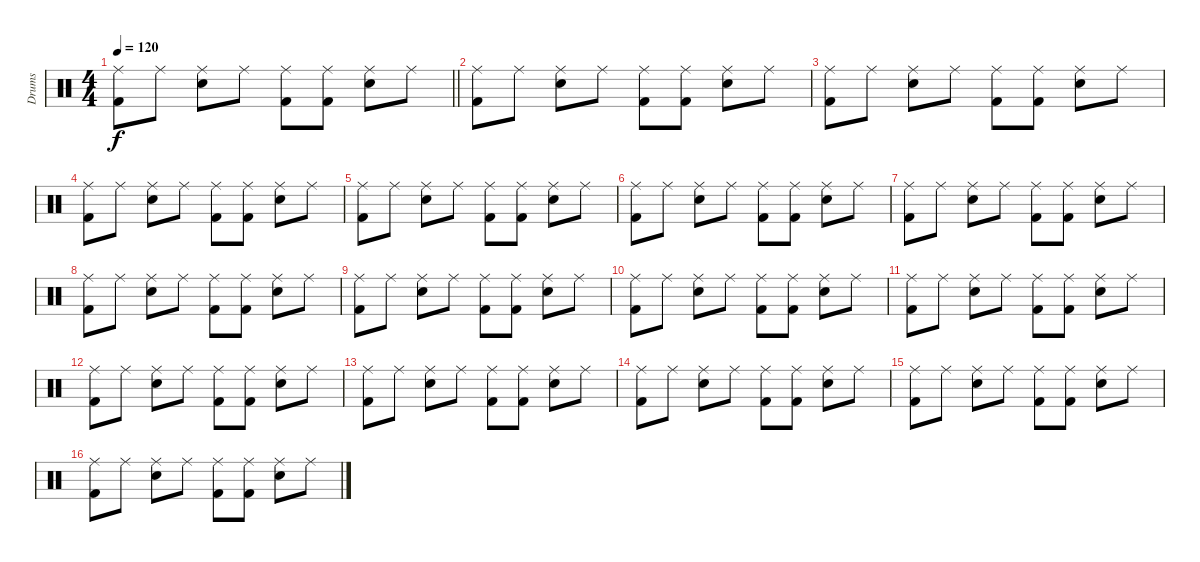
\track ("Drums" "Drums") {instrument percussion}
\staff {score}
\articulation defaults
\ts (4 4)
\tempo 120
\clef neutral
\barLineRight lightlight
\ks c
("Ride (middle)" "Kick (hit) 2").8{dy f} "Ride (middle)".8 ("Ride (middle)" "Snare (hit) 2").8 "Ride (middle)".8 ("Ride (middle)" "Kick (hit) 2").8 ("Ride (middle)" "Kick (hit) 2").8 ("Ride (middle)" "Snare (hit) 2").8 "Ride (middle)".8 |
("Ride (middle)" "Kick (hit) 2").8 "Ride (middle)".8 ("Ride (middle)" "Snare (hit) 2").8 "Ride (middle)".8 ("Ride (middle)" "Kick (hit) 2").8 ("Ride (middle)" "Kick (hit) 2").8 ("Ride (middle)" "Snare (hit) 2").8 "Ride (middle)".8 |
("Ride (middle)" "Kick (hit) 2").8 "Ride (middle)".8 ("Ride (middle)" "Snare (hit) 2").8 "Ride (middle)".8 ("Ride (middle)" "Kick (hit) 2").8 ("Ride (middle)" "Kick (hit) 2").8 ("Ride (middle)" "Snare (hit) 2").8 "Ride (middle)".8 |
("Ride (middle)" "Kick (hit) 2").8 "Ride (middle)".8 ("Ride (middle)" "Snare (hit) 2").8 "Ride (middle)".8 ("Ride (middle)" "Kick (hit) 2").8 ("Ride (middle)" "Kick (hit) 2").8 ("Ride (middle)" "Snare (hit) 2").8 "Ride (middle)".8 |
("Ride (middle)" "Kick (hit) 2").8 "Ride (middle)".8 ("Ride (middle)" "Snare (hit) 2").8 "Ride (middle)".8 ("Ride (middle)" "Kick (hit) 2").8 ("Ride (middle)" "Kick (hit) 2").8 ("Ride (middle)" "Snare (hit) 2").8 "Ride (middle)".8 |
("Ride (middle)" "Kick (hit) 2").8 "Ride (middle)".8 ("Ride (middle)" "Snare (hit) 2").8 "Ride (middle)".8 ("Ride (middle)" "Kick (hit) 2").8 ("Ride (middle)" "Kick (hit) 2").8 ("Ride (middle)" "Snare (hit) 2").8 "Ride (middle)".8 |
("Ride (middle)" "Kick (hit) 2").8 "Ride (middle)".8 ("Ride (middle)" "Snare (hit) 2").8 "Ride (middle)".8 ("Ride (middle)" "Kick (hit) 2").8 ("Ride (middle)" "Kick (hit) 2").8 ("Ride (middle)" "Snare (hit) 2").8 "Ride (middle)".8 |
("Ride (middle)" "Kick (hit) 2").8 "Ride (middle)".8 ("Ride (middle)" "Snare (hit) 2").8 "Ride (middle)".8 ("Ride (middle)" "Kick (hit) 2").8 ("Ride (middle)" "Kick (hit) 2").8 ("Ride (middle)" "Snare (hit) 2").8 "Ride (middle)".8 |
("Ride (middle)" "Kick (hit) 2").8 "Ride (middle)".8 ("Ride (middle)" "Snare (hit) 2").8 "Ride (middle)".8 ("Ride (middle)" "Kick (hit) 2").8 ("Ride (middle)" "Kick (hit) 2").8 ("Ride (middle)" "Snare (hit) 2").8 "Ride (middle)".8 |
("Ride (middle)" "Kick (hit) 2").8 "Ride (middle)".8 ("Ride (middle)" "Snare (hit) 2").8 "Ride (middle)".8 ("Ride (middle)" "Kick (hit) 2").8 ("Ride (middle)" "Kick (hit) 2").8 ("Ride (middle)" "Snare (hit) 2").8 "Ride (middle)".8 |
("Ride (middle)" "Kick (hit) 2").8 "Ride (middle)".8 ("Ride (middle)" "Snare (hit) 2").8 "Ride (middle)".8 ("Ride (middle)" "Kick (hit) 2").8 ("Ride (middle)" "Kick (hit) 2").8 ("Ride (middle)" "Snare (hit) 2").8 "Ride (middle)".8 |
("Ride (middle)" "Kick (hit) 2").8 "Ride (middle)".8 ("Ride (middle)" "Snare (hit) 2").8 "Ride (middle)".8 ("Ride (middle)" "Kick (hit) 2").8 ("Ride (middle)" "Kick (hit) 2").8 ("Ride (middle)" "Snare (hit) 2").8 "Ride (middle)".8 |
("Ride (middle)" "Kick (hit) 2").8 "Ride (middle)".8 ("Ride (middle)" "Snare (hit) 2").8 "Ride (middle)".8 ("Ride (middle)" "Kick (hit) 2").8 ("Ride (middle)" "Kick (hit) 2").8 ("Ride (middle)" "Snare (hit) 2").8 "Ride (middle)".8 |
("Ride (middle)" "Kick (hit) 2").8 "Ride (middle)".8 ("Ride (middle)" "Snare (hit) 2").8 "Ride (middle)".8 ("Ride (middle)" "Kick (hit) 2").8 ("Ride (middle)" "Kick (hit) 2").8 ("Ride (middle)" "Snare (hit) 2").8 "Ride (middle)".8 |
("Ride (middle)" "Kick (hit) 2").8 "Ride (middle)".8 ("Ride (middle)" "Snare (hit) 2").8 "Ride (middle)".8 ("Ride (middle)" "Kick (hit) 2").8 ("Ride (middle)" "Kick (hit) 2").8 ("Ride (middle)" "Snare (hit) 2").8 "Ride (middle)".8 |
("Ride (middle)" "Kick (hit) 2").8 "Ride (middle)".8 ("Ride (middle)" "Snare (hit) 2").8 "Ride (middle)".8 ("Ride (middle)" "Kick (hit) 2").8 ("Ride (middle)" "Kick (hit) 2").8 ("Ride (middle)" "Snare (hit) 2").8 "Ride (middle)".8
